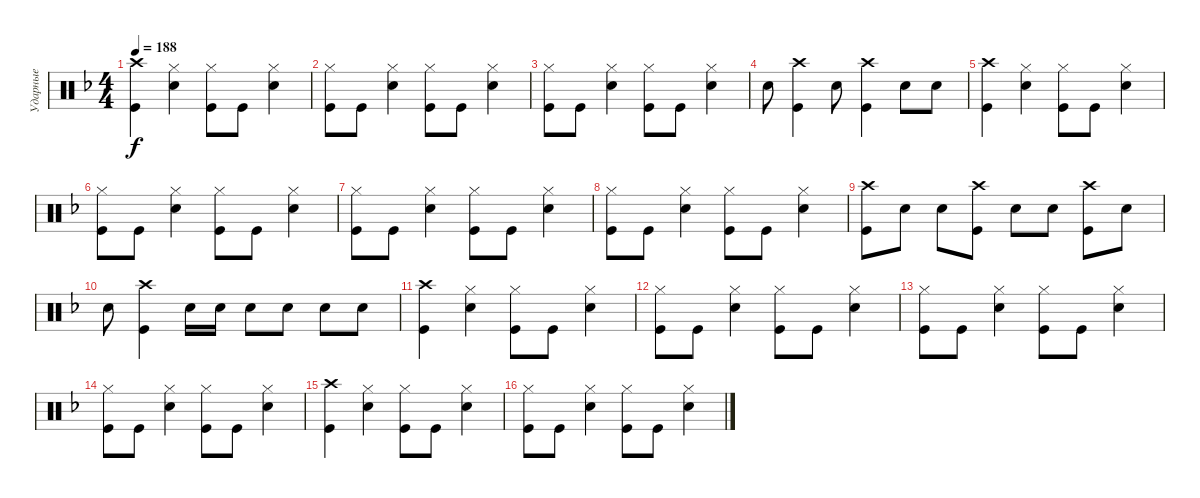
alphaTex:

\track ("Ударные" "Ударные") {instrument percussion}
\staff {score}
\articulation defaults
\ts (4 4)
\tempo 188
\clef neutral
\ks dminor
("Kick (hit)" "Crash high (hit)").4{dy f} ("Snare (hit) 2" "Hi-Hat (closed)").4 ("Kick (hit)" "Hi-Hat (closed)").8 "Kick (hit)".8 ("Hi-Hat (closed)" "Snare (hit) 2").4 |
("Kick (hit)" "Hi-Hat (closed)").8 "Kick (hit)".8 ("Snare (hit) 2" "Hi-Hat (closed)").4 ("Kick (hit)" "Hi-Hat (closed)").8 "Kick (hit)".8 ("Hi-Hat (closed)" "Snare (hit) 2").4 |
("Kick (hit)" "Hi-Hat (closed)").8 "Kick (hit)".8 ("Snare (hit) 2" "Hi-Hat (closed)").4 ("Kick (hit)" "Hi-Hat (closed)").8 "Kick (hit)".8 ("Hi-Hat (closed)" "Snare (hit) 2").4 |
"Snare (hit) 2".8 ("Kick (hit)" "Crash high (hit)").4 "Snare (hit) 2".8 ("Kick (hit)" "Crash high (hit)").4 "Snare (hit) 2".8 "Snare (hit) 2".8 |
("Kick (hit)" "Crash high (hit)").4 ("Snare (hit) 2" "Hi-Hat (closed)").4 ("Kick (hit)" "Hi-Hat (closed)").8 "Kick (hit)".8 ("Hi-Hat (closed)" "Snare (hit) 2").4 |
("Kick (hit)" "Hi-Hat (closed)").8 "Kick (hit)".8 ("Snare (hit) 2" "Hi-Hat (closed)").4 ("Kick (hit)" "Hi-Hat (closed)").8 "Kick (hit)".8 ("Hi-Hat (closed)" "Snare (hit) 2").4 |
("Kick (hit)" "Hi-Hat (closed)").8 "Kick (hit)".8 ("Snare (hit) 2" "Hi-Hat (closed)").4 ("Kick (hit)" "Hi-Hat (closed)").8 "Kick (hit)".8 ("Hi-Hat (closed)" "Snare (hit) 2").4 |
("Kick (hit)" "Hi-Hat (closed)").8 "Kick (hit)".8 ("Snare (hit) 2" "Hi-Hat (closed)").4 ("Kick (hit)" "Hi-Hat (closed)").8 "Kick (hit)".8 ("Hi-Hat (closed)" "Snare (hit) 2").4 |
("Kick (hit)" "Crash high (hit)").8 "Snare (hit) 2".8 "Snare (hit) 2".8 ("Kick (hit)" "Crash high (hit)").8 "Snare (hit) 2".8 "Snare (hit) 2".8 ("Kick (hit)" "Crash high (hit)").8 "Snare (hit) 2".8 |
"Snare (hit) 2".8 ("Kick (hit)" "Crash high (hit)").4 "Snare (hit) 2".16 "Snare (hit) 2".16 "Snare (hit) 2".8 "Snare (hit) 2".8 "Snare (hit) 2".8 "Snare (hit) 2".8 |
("Kick (hit)" "Crash high (hit)").4 ("Snare (hit) 2" "Hi-Hat (closed)").4 ("Kick (hit)" "Hi-Hat (closed)").8 "Kick (hit)".8 ("Hi-Hat (closed)" "Snare (hit) 2").4 |
("Kick (hit)" "Hi-Hat (closed)").8 "Kick (hit)".8 ("Snare (hit) 2" "Hi-Hat (closed)").4 ("Kick (hit)" "Hi-Hat (closed)").8 "Kick (hit)".8 ("Hi-Hat (closed)" "Snare (hit) 2").4 |
("Kick (hit)" "Hi-Hat (closed)").8 "Kick (hit)".8 ("Snare (hit) 2" "Hi-Hat (closed)").4 ("Kick (hit)" "Hi-Hat (closed)").8 "Kick (hit)".8 ("Hi-Hat (closed)" "Snare (hit) 2").4 |
("Kick (hit)" "Hi-Hat (closed)").8 "Kick (hit)".8 ("Snare (hit) 2" "Hi-Hat (closed)").4 ("Kick (hit)" "Hi-Hat (closed)").8 "Kick (hit)".8 ("Hi-Hat (closed)" "Snare (hit) 2").4 |
("Kick (hit)" "Crash high (hit)").4 ("Snare (hit) 2" "Hi-Hat (closed)").4 ("Kick (hit)" "Hi-Hat (closed)").8 "Kick (hit)".8 ("Hi-Hat (closed)" "Snare (hit) 2").4 |
("Kick (hit)" "Hi-Hat (closed)").8 "Kick (hit)".8 ("Snare (hit) 2" "Hi-Hat (closed)").4 ("Kick (hit)" "Hi-Hat (closed)").8 "Kick (hit)".8 ("Hi-Hat (closed)" "Snare (hit) 2").4
